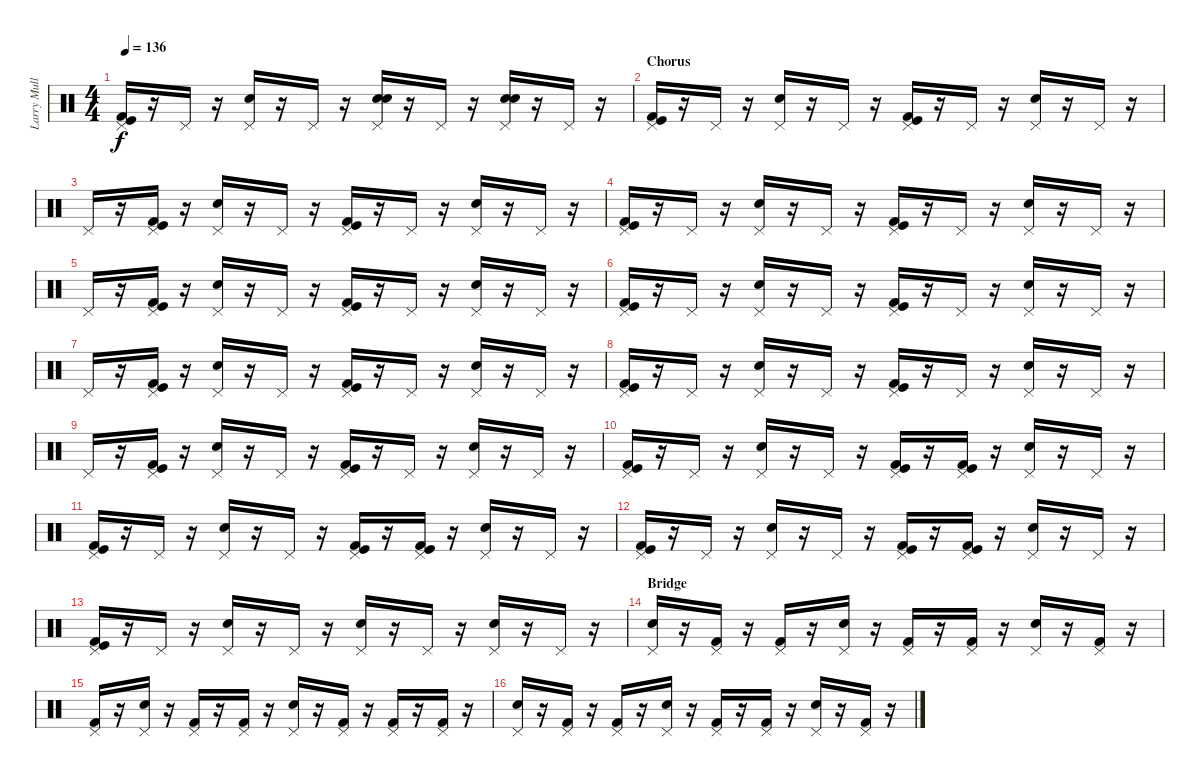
\track ("Larry Mullen Jr." "Larry Mull") {instrument percussion}
\staff {score}
\articulation defaults
\ts (4 4)
\tempo 136
\clef neutral
\ks c
("Kick (hit) 2" "Kick (hit)" "Pedal Hi-Hat (hit)").16{dy f} r.16 "Pedal Hi-Hat (hit)".16 r.16 ("Snare (hit) 2" "Pedal Hi-Hat (hit)").16 r.16 "Pedal Hi-Hat (hit)".16 r.16 ("Snare (hit) 2" "Snare (hit) 2" "Pedal Hi-Hat (hit)").16 r.16 "Pedal Hi-Hat (hit)".16 r.16 ("Snare (hit) 2" "Snare (hit) 2" "Pedal Hi-Hat (hit)").16 r.16 "Pedal Hi-Hat (hit)".16 r.16 |
\section ("" "Chorus")
("Kick (hit) 2" "Kick (hit)" "Pedal Hi-Hat (hit)").16 r.16 "Pedal Hi-Hat (hit)".16 r.16 ("Snare (hit) 2" "Pedal Hi-Hat (hit)").16 r.16 "Pedal Hi-Hat (hit)".16 r.16 ("Kick (hit) 2" "Kick (hit)" "Pedal Hi-Hat (hit)").16 r.16 "Pedal Hi-Hat (hit)".16 r.16 ("Snare (hit) 2" "Pedal Hi-Hat (hit)").16 r.16 "Pedal Hi-Hat (hit)".16 r.16 |
"Pedal Hi-Hat (hit)".16 r.16 ("Kick (hit) 2" "Kick (hit)" "Pedal Hi-Hat (hit)").16 r.16 ("Snare (hit) 2" "Pedal Hi-Hat (hit)").16 r.16 "Pedal Hi-Hat (hit)".16 r.16 ("Kick (hit) 2" "Kick (hit)" "Pedal Hi-Hat (hit)").16 r.16 "Pedal Hi-Hat (hit)".16 r.16 ("Snare (hit) 2" "Pedal Hi-Hat (hit)").16 r.16 "Pedal Hi-Hat (hit)".16 r.16 |
("Kick (hit) 2" "Kick (hit)" "Pedal Hi-Hat (hit)").16 r.16 "Pedal Hi-Hat (hit)".16 r.16 ("Snare (hit) 2" "Pedal Hi-Hat (hit)").16 r.16 "Pedal Hi-Hat (hit)".16 r.16 ("Kick (hit) 2" "Kick (hit)" "Pedal Hi-Hat (hit)").16 r.16 "Pedal Hi-Hat (hit)".16 r.16 ("Snare (hit) 2" "Pedal Hi-Hat (hit)").16 r.16 "Pedal Hi-Hat (hit)".16 r.16 |
"Pedal Hi-Hat (hit)".16 r.16 ("Kick (hit) 2" "Kick (hit)" "Pedal Hi-Hat (hit)").16 r.16 ("Snare (hit) 2" "Pedal Hi-Hat (hit)").16 r.16 "Pedal Hi-Hat (hit)".16 r.16 ("Kick (hit) 2" "Kick (hit)" "Pedal Hi-Hat (hit)").16 r.16 "Pedal Hi-Hat (hit)".16 r.16 ("Snare (hit) 2" "Pedal Hi-Hat (hit)").16 r.16 "Pedal Hi-Hat (hit)".16 r.16 |
("Kick (hit) 2" "Kick (hit)" "Pedal Hi-Hat (hit)").16 r.16 "Pedal Hi-Hat (hit)".16 r.16 ("Snare (hit) 2" "Pedal Hi-Hat (hit)").16 r.16 "Pedal Hi-Hat (hit)".16 r.16 ("Kick (hit) 2" "Kick (hit)" "Pedal Hi-Hat (hit)").16 r.16 "Pedal Hi-Hat (hit)".16 r.16 ("Snare (hit) 2" "Pedal Hi-Hat (hit)").16 r.16 "Pedal Hi-Hat (hit)".16 r.16 |
"Pedal Hi-Hat (hit)".16 r.16 ("Kick (hit) 2" "Kick (hit)" "Pedal Hi-Hat (hit)").16 r.16 ("Snare (hit) 2" "Pedal Hi-Hat (hit)").16 r.16 "Pedal Hi-Hat (hit)".16 r.16 ("Kick (hit) 2" "Kick (hit)" "Pedal Hi-Hat (hit)").16 r.16 "Pedal Hi-Hat (hit)".16 r.16 ("Snare (hit) 2" "Pedal Hi-Hat (hit)").16 r.16 "Pedal Hi-Hat (hit)".16 r.16 |
("Kick (hit) 2" "Kick (hit)" "Pedal Hi-Hat (hit)").16 r.16 "Pedal Hi-Hat (hit)".16 r.16 ("Snare (hit) 2" "Pedal Hi-Hat (hit)").16 r.16 "Pedal Hi-Hat (hit)".16 r.16 ("Kick (hit) 2" "Kick (hit)" "Pedal Hi-Hat (hit)").16 r.16 "Pedal Hi-Hat (hit)".16 r.16 ("Snare (hit) 2" "Pedal Hi-Hat (hit)").16 r.16 "Pedal Hi-Hat (hit)".16 r.16 |
"Pedal Hi-Hat (hit)".16 r.16 ("Kick (hit) 2" "Kick (hit)" "Pedal Hi-Hat (hit)").16 r.16 ("Snare (hit) 2" "Pedal Hi-Hat (hit)").16 r.16 "Pedal Hi-Hat (hit)".16 r.16 ("Kick (hit) 2" "Kick (hit)" "Pedal Hi-Hat (hit)").16 r.16 "Pedal Hi-Hat (hit)".16 r.16 ("Snare (hit) 2" "Pedal Hi-Hat (hit)").16 r.16 "Pedal Hi-Hat (hit)".16 r.16 |
("Kick (hit) 2" "Kick (hit)" "Pedal Hi-Hat (hit)").16 r.16 "Pedal Hi-Hat (hit)".16 r.16 ("Electric Snare (hit)" "Pedal Hi-Hat (hit)").16 r.16 "Pedal Hi-Hat (hit)".16 r.16 ("Kick (hit) 2" "Kick (hit)" "Pedal Hi-Hat (hit)").16 r.16 ("Kick (hit) 2" "Kick (hit)" "Pedal Hi-Hat (hit)").16 r.16 ("Electric Snare (hit)" "Pedal Hi-Hat (hit)").16 r.16 "Pedal Hi-Hat (hit)".16 r.16 |
("Kick (hit) 2" "Kick (hit)" "Pedal Hi-Hat (hit)").16 r.16 "Pedal Hi-Hat (hit)".16 r.16 ("Electric Snare (hit)" "Pedal Hi-Hat (hit)").16 r.16 "Pedal Hi-Hat (hit)".16 r.16 ("Kick (hit) 2" "Kick (hit)" "Pedal Hi-Hat (hit)").16 r.16 ("Kick (hit) 2" "Kick (hit)" "Pedal Hi-Hat (hit)").16 r.16 ("Electric Snare (hit)" "Pedal Hi-Hat (hit)").16 r.16 "Pedal Hi-Hat (hit)".16 r.16 |
("Kick (hit) 2" "Kick (hit)" "Pedal Hi-Hat (hit)").16 r.16 "Pedal Hi-Hat (hit)".16 r.16 ("Electric Snare (hit)" "Pedal Hi-Hat (hit)").16 r.16 "Pedal Hi-Hat (hit)".16 r.16 ("Kick (hit) 2" "Kick (hit)" "Pedal Hi-Hat (hit)").16 r.16 ("Kick (hit) 2" "Kick (hit)" "Pedal Hi-Hat (hit)").16 r.16 ("Electric Snare (hit)" "Pedal Hi-Hat (hit)").16 r.16 "Pedal Hi-Hat (hit)".16 r.16 |
("Kick (hit) 2" "Kick (hit)" "Pedal Hi-Hat (hit)").16 r.16 "Pedal Hi-Hat (hit)".16 r.16 ("Electric Snare (hit)" "Pedal Hi-Hat (hit)").16 r.16 "Pedal Hi-Hat (hit)".16 r.16 ("Snare (hit) 2" "Pedal Hi-Hat (hit)").16 r.16 "Pedal Hi-Hat (hit)".16 r.16 ("Snare (hit) 2" "Pedal Hi-Hat (hit)").16 r.16 "Pedal Hi-Hat (hit)".16 r.16 |
\section ("" "Bridge")
("Snare (hit) 2" "Pedal Hi-Hat (hit)").16 r.16 ("Kick (hit) 2" "Pedal Hi-Hat (hit)").16 r.16 ("Kick (hit) 2" "Pedal Hi-Hat (hit)").16 r.16 ("Snare (hit) 2" "Pedal Hi-Hat (hit)").16 r.16 ("Kick (hit) 2" "Pedal Hi-Hat (hit)").16 r.16 ("Kick (hit) 2" "Pedal Hi-Hat (hit)").16 r.16 ("Snare (hit) 2" "Pedal Hi-Hat (hit)").16 r.16 ("Kick (hit) 2" "Pedal Hi-Hat (hit)").16 r.16 |
("Kick (hit) 2" "Pedal Hi-Hat (hit)").16 r.16 ("Snare (hit) 2" "Pedal Hi-Hat (hit)").16 r.16 ("Kick (hit) 2" "Pedal Hi-Hat (hit)").16 r.16 ("Kick (hit) 2" "Pedal Hi-Hat (hit)").16 r.16 ("Snare (hit) 2" "Pedal Hi-Hat (hit)").16 r.16 ("Kick (hit) 2" "Pedal Hi-Hat (hit)").16 r.16 ("Kick (hit) 2" "Pedal Hi-Hat (hit)").16 r.16 ("Kick (hit) 2" "Pedal Hi-Hat (hit)").16 r.16 |
("Snare (hit) 2" "Pedal Hi-Hat (hit)").16 r.16 ("Kick (hit) 2" "Pedal Hi-Hat (hit)").16 r.16 ("Kick (hit) 2" "Pedal Hi-Hat (hit)").16 r.16 ("Snare (hit) 2" "Pedal Hi-Hat (hit)").16 r.16 ("Kick (hit) 2" "Pedal Hi-Hat (hit)").16 r.16 ("Kick (hit) 2" "Pedal Hi-Hat (hit)").16 r.16 ("Snare (hit) 2" "Pedal Hi-Hat (hit)").16 r.16 ("Kick (hit) 2" "Pedal Hi-Hat (hit)").16 r.16
